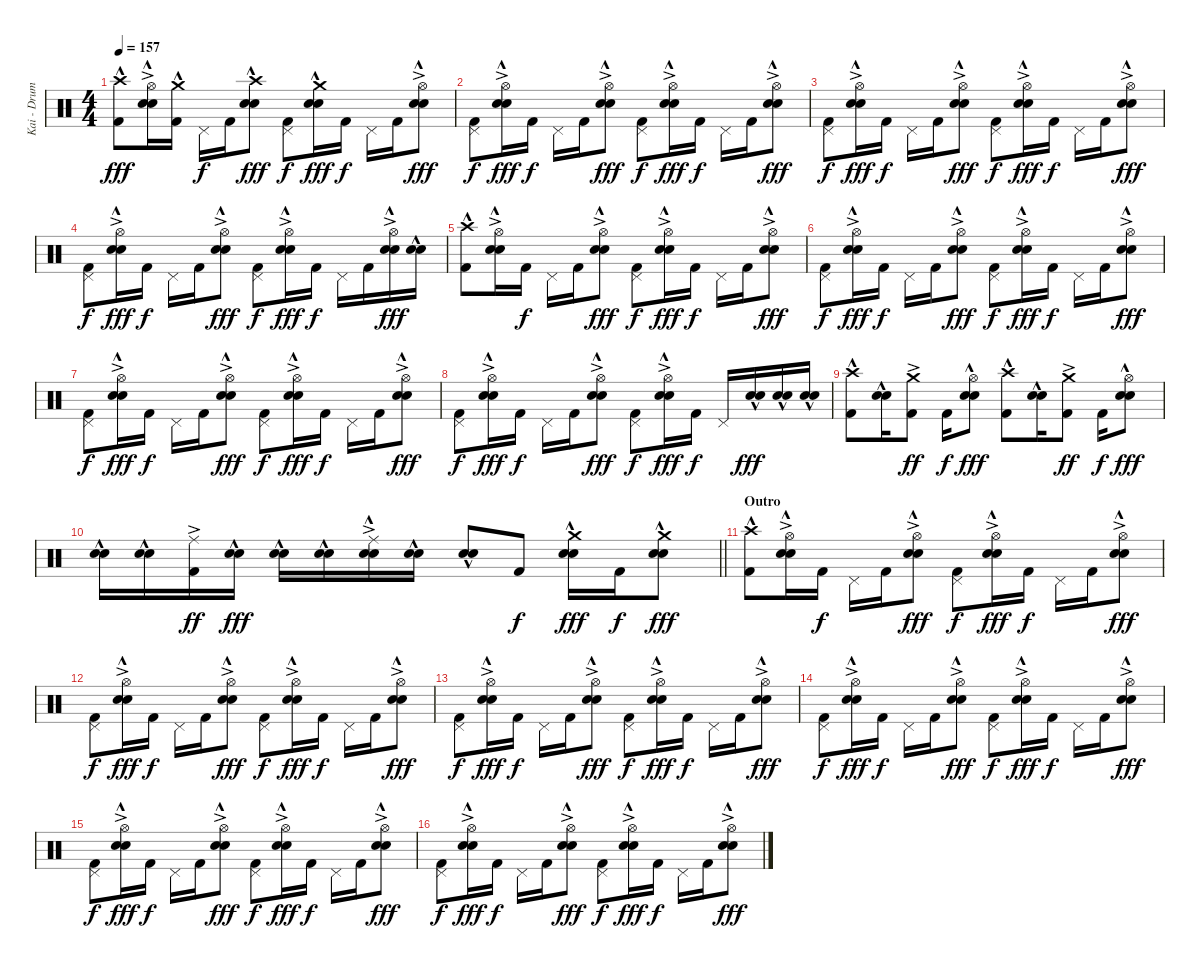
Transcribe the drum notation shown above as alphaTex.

\track ("Kai - Drums" "Kai - Drum") {instrument percussion}
\staff {score}
\articulation defaults
\ts (4 4)
\section ("" "")
\tempo 157
\clef neutral
\ks c
("Crash high (hit)"{hac} "Kick (hit) 2").8{dy fff} ("Hi-Hat (open)"{ac} "Electric Snare (hit)"{hac} "Snare (hit) 2").16 ("Crash medium (hit)"{hac} "Kick (hit) 2").16 "Pedal Hi-Hat (hit)".16{dy f} "Kick (hit) 2".16 ("Crash high (hit)"{hac} "Electric Snare (hit)"{hac} "Snare (hit) 2").8{dy fff} ("Pedal Hi-Hat (hit)" "Kick (hit) 2").8{dy f} ("Crash medium (hit)"{hac} "Electric Snare (hit)"{hac} "Snare (hit) 2").16{dy fff} "Kick (hit) 2".16{dy f} "Pedal Hi-Hat (hit)".16 "Kick (hit) 2".16 ("Hi-Hat (open)"{ac} "Electric Snare (hit)"{hac} "Snare (hit) 2").8{dy fff} |
("Pedal Hi-Hat (hit)" "Kick (hit) 2").8{dy f} ("Hi-Hat (open)"{ac} "Electric Snare (hit)"{hac} "Snare (hit) 2").16{dy fff} "Kick (hit) 2".16{dy f} "Pedal Hi-Hat (hit)".16 "Kick (hit) 2".16 ("Hi-Hat (open)"{ac} "Electric Snare (hit)"{hac} "Snare (hit) 2").8{dy fff} ("Pedal Hi-Hat (hit)" "Kick (hit) 2").8{dy f} ("Hi-Hat (open)"{ac} "Electric Snare (hit)"{hac} "Snare (hit) 2").16{dy fff} "Kick (hit) 2".16{dy f} "Pedal Hi-Hat (hit)".16 "Kick (hit) 2".16 ("Hi-Hat (open)"{ac} "Electric Snare (hit)"{hac} "Snare (hit) 2").8{dy fff} |
("Pedal Hi-Hat (hit)" "Kick (hit) 2").8{dy f} ("Hi-Hat (open)"{ac} "Electric Snare (hit)"{hac} "Snare (hit) 2").16{dy fff} "Kick (hit) 2".16{dy f} "Pedal Hi-Hat (hit)".16 "Kick (hit) 2".16 ("Hi-Hat (open)"{ac} "Electric Snare (hit)"{hac} "Snare (hit) 2").8{dy fff} ("Pedal Hi-Hat (hit)" "Kick (hit) 2").8{dy f} ("Hi-Hat (open)"{ac} "Electric Snare (hit)"{hac} "Snare (hit) 2").16{dy fff} "Kick (hit) 2".16{dy f} "Pedal Hi-Hat (hit)".16 "Kick (hit) 2".16 ("Hi-Hat (open)"{ac} "Electric Snare (hit)"{hac} "Snare (hit) 2").8{dy fff} |
("Pedal Hi-Hat (hit)" "Kick (hit) 2").8{dy f} ("Hi-Hat (open)"{ac} "Electric Snare (hit)"{hac} "Snare (hit) 2").16{dy fff} "Kick (hit) 2".16{dy f} "Pedal Hi-Hat (hit)".16 "Kick (hit) 2".16 ("Hi-Hat (open)"{ac} "Electric Snare (hit)"{hac} "Snare (hit) 2").8{dy fff} ("Pedal Hi-Hat (hit)" "Kick (hit) 2").8{dy f} ("Hi-Hat (open)"{ac} "Electric Snare (hit)"{hac} "Snare (hit) 2").16{dy fff} "Kick (hit) 2".16{dy f} "Pedal Hi-Hat (hit)".16 "Kick (hit) 2".16 ("Hi-Hat (open)"{ac} "Electric Snare (hit)"{hac} "Snare (hit) 2").16{dy fff} ("Electric Snare (hit)"{hac} "Snare (hit) 2").16 |
("Crash high (hit)"{hac} "Kick (hit) 2").8 ("Hi-Hat (open)"{ac} "Electric Snare (hit)"{hac} "Snare (hit) 2").16 "Kick (hit) 2".16{dy f} "Pedal Hi-Hat (hit)".16 "Kick (hit) 2".16 ("Hi-Hat (open)"{ac} "Electric Snare (hit)"{hac} "Snare (hit) 2").8{dy fff} ("Pedal Hi-Hat (hit)" "Kick (hit) 2").8{dy f} ("Hi-Hat (open)"{ac} "Electric Snare (hit)"{hac} "Snare (hit) 2").16{dy fff} "Kick (hit) 2".16{dy f} "Pedal Hi-Hat (hit)".16 "Kick (hit) 2".16 ("Hi-Hat (open)"{ac} "Electric Snare (hit)"{hac} "Snare (hit) 2").8{dy fff} |
("Pedal Hi-Hat (hit)" "Kick (hit) 2").8{dy f} ("Hi-Hat (open)"{ac} "Electric Snare (hit)"{hac} "Snare (hit) 2").16{dy fff} "Kick (hit) 2".16{dy f} "Pedal Hi-Hat (hit)".16 "Kick (hit) 2".16 ("Hi-Hat (open)"{ac} "Electric Snare (hit)"{hac} "Snare (hit) 2").8{dy fff} ("Pedal Hi-Hat (hit)" "Kick (hit) 2").8{dy f} ("Hi-Hat (open)"{ac} "Electric Snare (hit)"{hac} "Snare (hit) 2").16{dy fff} "Kick (hit) 2".16{dy f} "Pedal Hi-Hat (hit)".16 "Kick (hit) 2".16 ("Hi-Hat (open)"{ac} "Electric Snare (hit)"{hac} "Snare (hit) 2").8{dy fff} |
("Pedal Hi-Hat (hit)" "Kick (hit) 2").8{dy f} ("Hi-Hat (open)"{ac} "Electric Snare (hit)"{hac} "Snare (hit) 2").16{dy fff} "Kick (hit) 2".16{dy f} "Pedal Hi-Hat (hit)".16 "Kick (hit) 2".16 ("Hi-Hat (open)"{ac} "Electric Snare (hit)"{hac} "Snare (hit) 2").8{dy fff} ("Pedal Hi-Hat (hit)" "Kick (hit) 2").8{dy f} ("Hi-Hat (open)"{ac} "Electric Snare (hit)"{hac} "Snare (hit) 2").16{dy fff} "Kick (hit) 2".16{dy f} "Pedal Hi-Hat (hit)".16 "Kick (hit) 2".16 ("Hi-Hat (open)"{ac} "Electric Snare (hit)"{hac} "Snare (hit) 2").8{dy fff} |
("Pedal Hi-Hat (hit)" "Kick (hit) 2").8{dy f} ("Hi-Hat (open)"{ac} "Electric Snare (hit)"{hac} "Snare (hit) 2").16{dy fff} "Kick (hit) 2".16{dy f} "Pedal Hi-Hat (hit)".16 "Kick (hit) 2".16 ("Hi-Hat (open)"{ac} "Electric Snare (hit)"{hac} "Snare (hit) 2").8{dy fff} ("Pedal Hi-Hat (hit)" "Kick (hit) 2").8{dy f} ("Hi-Hat (open)"{ac} "Electric Snare (hit)"{hac} "Snare (hit) 2").16{dy fff} "Kick (hit) 2".16{dy f} "Pedal Hi-Hat (hit)".16 ("Electric Snare (hit)"{hac} "Snare (hit) 2").16{dy fff} ("Electric Snare (hit)"{hac} "Snare (hit) 2").16 ("Electric Snare (hit)"{hac} "Snare (hit) 2").16 |
("Crash high (hit)"{hac} "Kick (hit) 2").8 ("Electric Snare (hit)"{hac} "Snare (hit) 2").16 ("Crash medium (hit)"{ac} "Kick (hit) 2").8{dy ff} "Kick (hit) 2".16{dy f} ("Hi-Hat (open)" "Electric Snare (hit)"{hac} "Snare (hit) 2").8{dy fff} ("Crash high (hit)"{hac} "Kick (hit) 2").8 ("Electric Snare (hit)"{hac} "Snare (hit) 2").16 ("Crash medium (hit)"{ac} "Kick (hit) 2").8{dy ff} "Kick (hit) 2".16{dy f} ("Hi-Hat (open)" "Electric Snare (hit)"{hac} "Snare (hit) 2").8{dy fff} |
\barLineRight lightlight
("Electric Snare (hit)"{hac} "Snare (hit) 2").16 ("Electric Snare (hit)"{hac} "Snare (hit) 2").16 ("Ride (middle)"{ac} "Kick (hit) 2").16{dy ff} ("Electric Snare (hit)"{hac} "Snare (hit) 2").16{dy fff} ("Electric Snare (hit)"{hac} "Snare (hit) 2").16 ("Electric Snare (hit)"{hac} "Snare (hit) 2").16 ("Ride (middle)"{ac} "Electric Snare (hit)"{hac} "Snare (hit) 2").16 ("Electric Snare (hit)"{hac} "Snare (hit) 2").16 ("Electric Snare (hit)"{hac} "Snare (hit) 2").8 "Kick (hit) 2".8{dy f} ("Crash medium (hit)" "Electric Snare (hit)"{hac} "Snare (hit) 2").16{dy fff} "Kick (hit) 2".16{dy f} ("Crash medium (hit)" "Electric Snare (hit)"{hac} "Snare (hit) 2").8{dy fff} |
\section ("" "Outro")
("Crash high (hit)"{hac} "Kick (hit) 2").8 ("Hi-Hat (open)"{ac} "Electric Snare (hit)"{hac} "Snare (hit) 2").16 "Kick (hit) 2".16{dy f} "Pedal Hi-Hat (hit)".16 "Kick (hit) 2".16 ("Hi-Hat (open)"{ac} "Electric Snare (hit)"{hac} "Snare (hit) 2").8{dy fff} ("Pedal Hi-Hat (hit)" "Kick (hit) 2").8{dy f} ("Hi-Hat (open)"{ac} "Electric Snare (hit)"{hac} "Snare (hit) 2").16{dy fff} "Kick (hit) 2".16{dy f} "Pedal Hi-Hat (hit)".16 "Kick (hit) 2".16 ("Hi-Hat (open)"{ac} "Electric Snare (hit)"{hac} "Snare (hit) 2").8{dy fff} |
("Pedal Hi-Hat (hit)" "Kick (hit) 2").8{dy f} ("Hi-Hat (open)"{ac} "Electric Snare (hit)"{hac} "Snare (hit) 2").16{dy fff} "Kick (hit) 2".16{dy f} "Pedal Hi-Hat (hit)".16 "Kick (hit) 2".16 ("Hi-Hat (open)"{ac} "Electric Snare (hit)"{hac} "Snare (hit) 2").8{dy fff} ("Pedal Hi-Hat (hit)" "Kick (hit) 2").8{dy f} ("Hi-Hat (open)"{ac} "Electric Snare (hit)"{hac} "Snare (hit) 2").16{dy fff} "Kick (hit) 2".16{dy f} "Pedal Hi-Hat (hit)".16 "Kick (hit) 2".16 ("Hi-Hat (open)"{ac} "Electric Snare (hit)"{hac} "Snare (hit) 2").8{dy fff} |
("Pedal Hi-Hat (hit)" "Kick (hit) 2").8{dy f} ("Hi-Hat (open)"{ac} "Electric Snare (hit)"{hac} "Snare (hit) 2").16{dy fff} "Kick (hit) 2".16{dy f} "Pedal Hi-Hat (hit)".16 "Kick (hit) 2".16 ("Hi-Hat (open)"{ac} "Electric Snare (hit)"{hac} "Snare (hit) 2").8{dy fff} ("Pedal Hi-Hat (hit)" "Kick (hit) 2").8{dy f} ("Hi-Hat (open)"{ac} "Electric Snare (hit)"{hac} "Snare (hit) 2").16{dy fff} "Kick (hit) 2".16{dy f} "Pedal Hi-Hat (hit)".16 "Kick (hit) 2".16 ("Hi-Hat (open)"{ac} "Electric Snare (hit)"{hac} "Snare (hit) 2").8{dy fff} |
("Pedal Hi-Hat (hit)" "Kick (hit) 2").8{dy f} ("Hi-Hat (open)"{ac} "Electric Snare (hit)"{hac} "Snare (hit) 2").16{dy fff} "Kick (hit) 2".16{dy f} "Pedal Hi-Hat (hit)".16 "Kick (hit) 2".16 ("Hi-Hat (open)"{ac} "Electric Snare (hit)"{hac} "Snare (hit) 2").8{dy fff} ("Pedal Hi-Hat (hit)" "Kick (hit) 2").8{dy f} ("Hi-Hat (open)"{ac} "Electric Snare (hit)"{hac} "Snare (hit) 2").16{dy fff} "Kick (hit) 2".16{dy f} "Pedal Hi-Hat (hit)".16 "Kick (hit) 2".16 ("Hi-Hat (open)"{ac} "Electric Snare (hit)"{hac} "Snare (hit) 2").8{dy fff} |
("Pedal Hi-Hat (hit)" "Kick (hit) 2").8{dy f} ("Hi-Hat (open)"{ac} "Electric Snare (hit)"{hac} "Snare (hit) 2").16{dy fff} "Kick (hit) 2".16{dy f} "Pedal Hi-Hat (hit)".16 "Kick (hit) 2".16 ("Hi-Hat (open)"{ac} "Electric Snare (hit)"{hac} "Snare (hit) 2").8{dy fff} ("Pedal Hi-Hat (hit)" "Kick (hit) 2").8{dy f} ("Hi-Hat (open)"{ac} "Electric Snare (hit)"{hac} "Snare (hit) 2").16{dy fff} "Kick (hit) 2".16{dy f} "Pedal Hi-Hat (hit)".16 "Kick (hit) 2".16 ("Hi-Hat (open)"{ac} "Electric Snare (hit)"{hac} "Snare (hit) 2").8{dy fff} |
("Pedal Hi-Hat (hit)" "Kick (hit) 2").8{dy f} ("Hi-Hat (open)"{ac} "Electric Snare (hit)"{hac} "Snare (hit) 2").16{dy fff} "Kick (hit) 2".16{dy f} "Pedal Hi-Hat (hit)".16 "Kick (hit) 2".16 ("Hi-Hat (open)"{ac} "Electric Snare (hit)"{hac} "Snare (hit) 2").8{dy fff} ("Pedal Hi-Hat (hit)" "Kick (hit) 2").8{dy f} ("Hi-Hat (open)"{ac} "Electric Snare (hit)"{hac} "Snare (hit) 2").16{dy fff} "Kick (hit) 2".16{dy f} "Pedal Hi-Hat (hit)".16 "Kick (hit) 2".16 ("Hi-Hat (open)"{ac} "Electric Snare (hit)"{hac} "Snare (hit) 2").8{dy fff}
